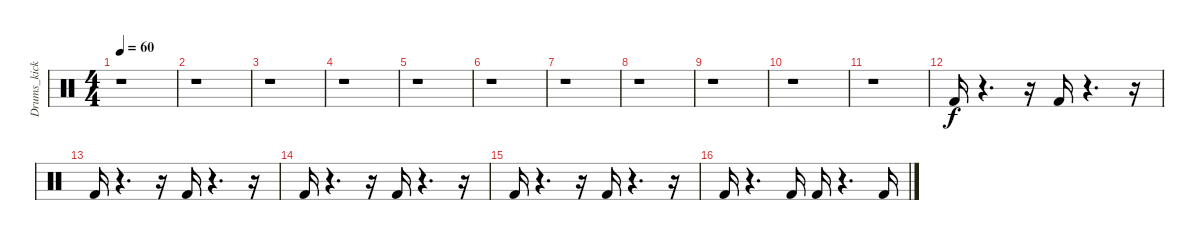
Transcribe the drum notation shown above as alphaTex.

\track ("Drums_kick" "Drums_kick") {instrument percussion}
\staff {score}
\articulation defaults
\ts (4 4)
\tempo 60
\clef neutral
\ks c
r.1{dy f} |
r.1 |
r.1 |
r.1 |
r.1 |
r.1 |
r.1 |
r.1 |
r.1 |
r.1 |
r.1 |
"Kick (hit) 2".16 r.4{d} r.16 "Kick (hit) 2".16 r.4{d} r.16 |
"Kick (hit) 2".16 r.4{d} r.16 "Kick (hit) 2".16 r.4{d} r.16 |
"Kick (hit) 2".16 r.4{d} r.16 "Kick (hit) 2".16 r.4{d} r.16 |
"Kick (hit) 2".16 r.4{d} r.16 "Kick (hit) 2".16 r.4{d} r.16 |
"Kick (hit) 2".16 r.4{d} "Kick (hit) 2".16 "Kick (hit) 2".16 r.4{d} "Kick (hit) 2".16
